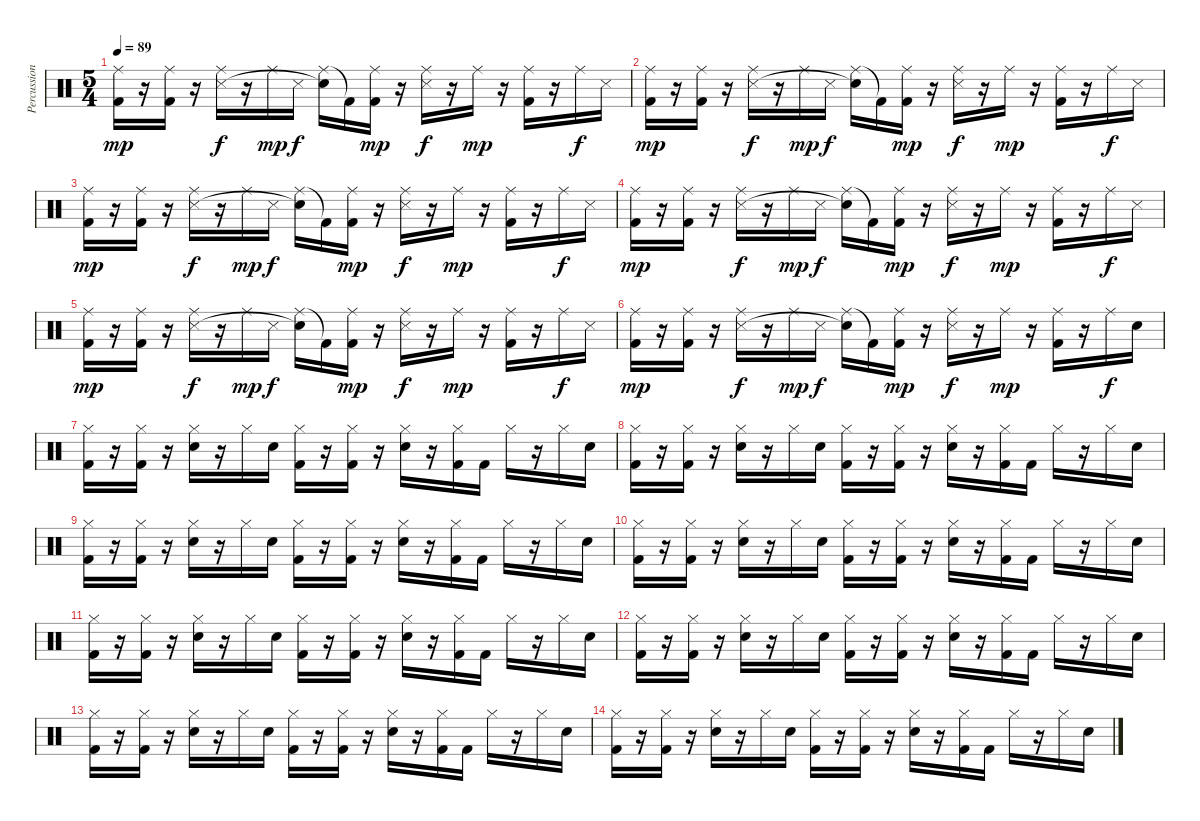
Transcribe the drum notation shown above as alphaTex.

\track ("Percussion" "Percussion") {instrument percussion}
\staff {score}
\articulation defaults
\ts (5 4)
\tempo 89
\clef neutral
\ks c
("Ride (middle)" "Kick (hit) 2").16{dy mp} r.16 ("Ride (middle)" "Kick (hit) 2").16 r.16 ("Ride (middle)" "Snare (side stick) 3").16{dy f} r.16 "Ride (middle)".16{dy mp} "Snare (side stick) 3".16{dy f} ("Ride (middle)" "Snare (hit)"{t}).16 "Kick (hit) 2"{t}.16 ("Ride (middle)" "Kick (hit) 2").16{dy mp} r.16 ("Ride (middle)" "Snare (side stick) 3").16{dy f} r.16 "Ride (middle)".16{dy mp} r.16 ("Ride (middle)" "Kick (hit) 2").16 r.16 "Ride (middle)".16{dy f} "Snare (side stick) 3".16 |
("Ride (middle)" "Kick (hit) 2").16{dy mp} r.16 ("Ride (middle)" "Kick (hit) 2").16 r.16 ("Ride (middle)" "Snare (side stick) 3").16{dy f} r.16 "Ride (middle)".16{dy mp} "Snare (side stick) 3".16{dy f} ("Ride (middle)" "Snare (hit)"{t}).16 "Kick (hit) 2"{t}.16 ("Ride (middle)" "Kick (hit) 2").16{dy mp} r.16 ("Ride (middle)" "Snare (side stick) 3").16{dy f} r.16 "Ride (middle)".16{dy mp} r.16 ("Ride (middle)" "Kick (hit) 2").16 r.16 "Ride (middle)".16{dy f} "Snare (side stick) 3".16 |
("Ride (middle)" "Kick (hit) 2").16{dy mp} r.16 ("Ride (middle)" "Kick (hit) 2").16 r.16 ("Ride (middle)" "Snare (side stick) 3").16{dy f} r.16 "Ride (middle)".16{dy mp} "Snare (side stick) 3".16{dy f} ("Ride (middle)" "Snare (hit)"{t}).16 "Kick (hit) 2"{t}.16 ("Ride (middle)" "Kick (hit) 2").16{dy mp} r.16 ("Ride (middle)" "Snare (side stick) 3").16{dy f} r.16 "Ride (middle)".16{dy mp} r.16 ("Ride (middle)" "Kick (hit) 2").16 r.16 "Ride (middle)".16{dy f} "Snare (side stick) 3".16 |
("Ride (middle)" "Kick (hit) 2").16{dy mp} r.16 ("Ride (middle)" "Kick (hit) 2").16 r.16 ("Ride (middle)" "Snare (side stick) 3").16{dy f} r.16 "Ride (middle)".16{dy mp} "Snare (side stick) 3".16{dy f} ("Ride (middle)" "Snare (hit)"{t}).16 "Kick (hit) 2"{t}.16 ("Ride (middle)" "Kick (hit) 2").16{dy mp} r.16 ("Ride (middle)" "Snare (side stick) 3").16{dy f} r.16 "Ride (middle)".16{dy mp} r.16 ("Ride (middle)" "Kick (hit) 2").16 r.16 "Ride (middle)".16{dy f} "Snare (side stick) 3".16 |
("Ride (middle)" "Kick (hit) 2").16{dy mp} r.16 ("Ride (middle)" "Kick (hit) 2").16 r.16 ("Ride (middle)" "Snare (side stick) 3").16{dy f} r.16 "Ride (middle)".16{dy mp} "Snare (side stick) 3".16{dy f} ("Ride (middle)" "Snare (hit)"{t}).16 "Kick (hit) 2"{t}.16 ("Ride (middle)" "Kick (hit) 2").16{dy mp} r.16 ("Ride (middle)" "Snare (side stick) 3").16{dy f} r.16 "Ride (middle)".16{dy mp} r.16 ("Ride (middle)" "Kick (hit) 2").16 r.16 "Ride (middle)".16{dy f} "Snare (side stick) 3".16 |
("Ride (middle)" "Kick (hit) 2").16{dy mp} r.16 ("Ride (middle)" "Kick (hit) 2").16 r.16 ("Ride (middle)" "Snare (side stick) 3").16{dy f} r.16 "Ride (middle)".16{dy mp} "Snare (side stick) 3".16{dy f} ("Ride (middle)" "Snare (hit)"{t}).16 "Kick (hit) 2"{t}.16 ("Ride (middle)" "Kick (hit) 2").16{dy mp} r.16 ("Ride (middle)" "Snare (side stick) 3").16{dy f} r.16 "Ride (middle)".16{dy mp} r.16 ("Ride (middle)" "Kick (hit) 2").16 r.16 "Ride (middle)".16{dy f} "Snare (hit) 2".16 |
("Hi-Hat (closed)" "Kick (hit) 2").16 r.16 ("Hi-Hat (closed)" "Kick (hit) 2").16 r.16 ("Hi-Hat (closed)" "Snare (hit) 2").16 r.16 "Hi-Hat (closed)".16 "Snare (hit) 2".16 ("Hi-Hat (closed)" "Kick (hit) 2").16 r.16 ("Hi-Hat (closed)" "Kick (hit) 2").16 r.16 ("Hi-Hat (closed)" "Snare (hit) 2").16 r.16 ("Hi-Hat (closed)" "Kick (hit) 2").16 "Kick (hit) 2".16 "Hi-Hat (closed)".16 r.16 "Hi-Hat (closed)".16 "Snare (hit) 2".16 |
("Hi-Hat (closed)" "Kick (hit) 2").16 r.16 ("Hi-Hat (closed)" "Kick (hit) 2").16 r.16 ("Hi-Hat (closed)" "Snare (hit) 2").16 r.16 "Hi-Hat (closed)".16 "Snare (hit) 2".16 ("Hi-Hat (closed)" "Kick (hit) 2").16 r.16 ("Hi-Hat (closed)" "Kick (hit) 2").16 r.16 ("Hi-Hat (closed)" "Snare (hit) 2").16 r.16 ("Hi-Hat (closed)" "Kick (hit) 2").16 "Kick (hit) 2".16 "Hi-Hat (closed)".16 r.16 "Hi-Hat (closed)".16 "Snare (hit) 2".16 |
("Hi-Hat (closed)" "Kick (hit) 2").16 r.16 ("Hi-Hat (closed)" "Kick (hit) 2").16 r.16 ("Hi-Hat (closed)" "Snare (hit) 2").16 r.16 "Hi-Hat (closed)".16 "Snare (hit) 2".16 ("Hi-Hat (closed)" "Kick (hit) 2").16 r.16 ("Hi-Hat (closed)" "Kick (hit) 2").16 r.16 ("Hi-Hat (closed)" "Snare (hit) 2").16 r.16 ("Hi-Hat (closed)" "Kick (hit) 2").16 "Kick (hit) 2".16 "Hi-Hat (closed)".16 r.16 "Hi-Hat (closed)".16 "Snare (hit) 2".16 |
("Hi-Hat (closed)" "Kick (hit) 2").16 r.16 ("Hi-Hat (closed)" "Kick (hit) 2").16 r.16 ("Hi-Hat (closed)" "Snare (hit) 2").16 r.16 "Hi-Hat (closed)".16 "Snare (hit) 2".16 ("Hi-Hat (closed)" "Kick (hit) 2").16 r.16 ("Hi-Hat (closed)" "Kick (hit) 2").16 r.16 ("Hi-Hat (closed)" "Snare (hit) 2").16 r.16 ("Hi-Hat (closed)" "Kick (hit) 2").16 "Kick (hit) 2".16 "Hi-Hat (closed)".16 r.16 "Hi-Hat (closed)".16 "Snare (hit) 2".16 |
("Hi-Hat (closed)" "Kick (hit) 2").16 r.16 ("Hi-Hat (closed)" "Kick (hit) 2").16 r.16 ("Hi-Hat (closed)" "Snare (hit) 2").16 r.16 "Hi-Hat (closed)".16 "Snare (hit) 2".16 ("Hi-Hat (closed)" "Kick (hit) 2").16 r.16 ("Hi-Hat (closed)" "Kick (hit) 2").16 r.16 ("Hi-Hat (closed)" "Snare (hit) 2").16 r.16 ("Hi-Hat (closed)" "Kick (hit) 2").16 "Kick (hit) 2".16 "Hi-Hat (closed)".16 r.16 "Hi-Hat (closed)".16 "Snare (hit) 2".16 |
("Hi-Hat (closed)" "Kick (hit) 2").16 r.16 ("Hi-Hat (closed)" "Kick (hit) 2").16 r.16 ("Hi-Hat (closed)" "Snare (hit) 2").16 r.16 "Hi-Hat (closed)".16 "Snare (hit) 2".16 ("Hi-Hat (closed)" "Kick (hit) 2").16 r.16 ("Hi-Hat (closed)" "Kick (hit) 2").16 r.16 ("Hi-Hat (closed)" "Snare (hit) 2").16 r.16 ("Hi-Hat (closed)" "Kick (hit) 2").16 "Kick (hit) 2".16 "Hi-Hat (closed)".16 r.16 "Hi-Hat (closed)".16 "Snare (hit) 2".16 |
("Hi-Hat (closed)" "Kick (hit) 2").16 r.16 ("Hi-Hat (closed)" "Kick (hit) 2").16 r.16 ("Hi-Hat (closed)" "Snare (hit) 2").16 r.16 "Hi-Hat (closed)".16 "Snare (hit) 2".16 ("Hi-Hat (closed)" "Kick (hit) 2").16 r.16 ("Hi-Hat (closed)" "Kick (hit) 2").16 r.16 ("Hi-Hat (closed)" "Snare (hit) 2").16 r.16 ("Hi-Hat (closed)" "Kick (hit) 2").16 "Kick (hit) 2".16 "Hi-Hat (closed)".16 r.16 "Hi-Hat (closed)".16 "Snare (hit) 2".16 |
("Hi-Hat (closed)" "Kick (hit) 2").16 r.16 ("Hi-Hat (closed)" "Kick (hit) 2").16 r.16 ("Hi-Hat (closed)" "Snare (hit) 2").16 r.16 "Hi-Hat (closed)".16 "Snare (hit) 2".16 ("Hi-Hat (closed)" "Kick (hit) 2").16 r.16 ("Hi-Hat (closed)" "Kick (hit) 2").16 r.16 ("Hi-Hat (closed)" "Snare (hit) 2").16 r.16 ("Hi-Hat (closed)" "Kick (hit) 2").16 "Kick (hit) 2".16 "Hi-Hat (closed)".16 r.16 "Hi-Hat (closed)".16 "Snare (hit) 2".16
